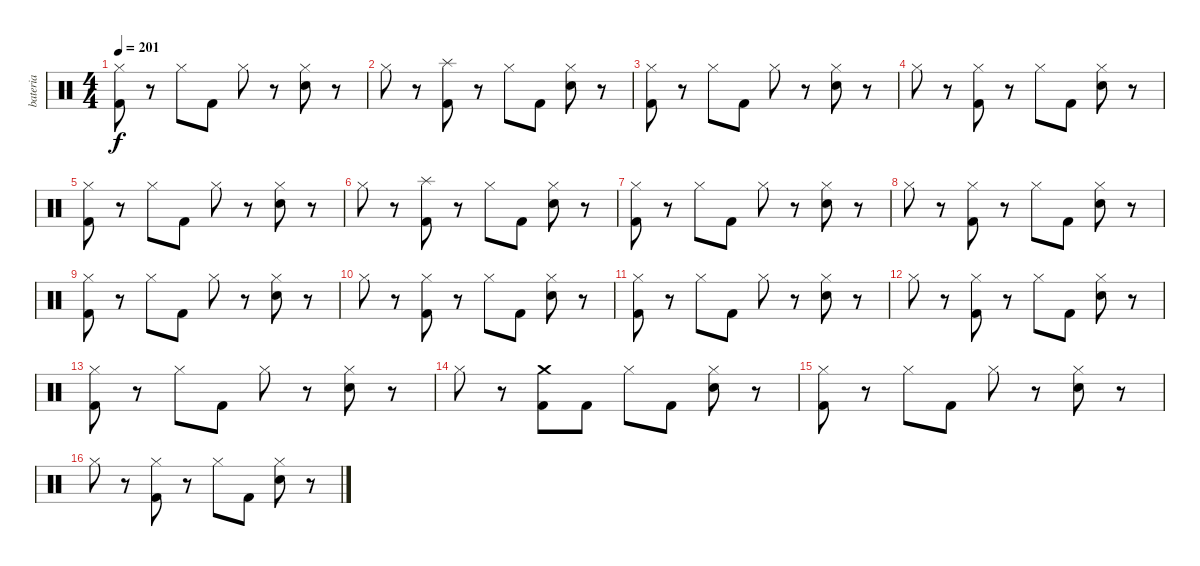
\track ("bateria" "bateria") {solo instrument percussion}
\staff {score}
\articulation defaults
\ts (4 4)
\tempo 201
\clef neutral
\ks c
("Hi-Hat (closed)" "Kick (hit) 2").8{dy f} r.8 "Hi-Hat (closed)".8 "Kick (hit) 2".8 "Hi-Hat (closed)".8 r.8 ("Hi-Hat (closed)" "Electric Snare (hit)").8 r.8 |
"Hi-Hat (closed)".8 r.8 ("Splash (hit)" "Kick (hit) 2").8 r.8 "Hi-Hat (closed)".8 "Kick (hit) 2".8 ("Hi-Hat (closed)" "Electric Snare (hit)").8 r.8 |
("Hi-Hat (closed)" "Kick (hit) 2").8 r.8 "Hi-Hat (closed)".8 "Kick (hit) 2".8 "Hi-Hat (closed)".8 r.8 ("Hi-Hat (closed)" "Electric Snare (hit)").8 r.8 |
"Hi-Hat (closed)".8 r.8 ("Hi-Hat (closed)" "Kick (hit) 2").8 r.8 "Hi-Hat (closed)".8 "Kick (hit) 2".8 ("Hi-Hat (closed)" "Electric Snare (hit)").8 r.8 |
("Hi-Hat (closed)" "Kick (hit) 2").8 r.8 "Hi-Hat (closed)".8 "Kick (hit) 2".8 "Hi-Hat (closed)".8 r.8 ("Hi-Hat (closed)" "Electric Snare (hit)").8 r.8 |
"Hi-Hat (closed)".8 r.8 ("Splash (hit)" "Kick (hit) 2").8 r.8 "Hi-Hat (closed)".8 "Kick (hit) 2".8 ("Hi-Hat (closed)" "Electric Snare (hit)").8 r.8 |
("Hi-Hat (closed)" "Kick (hit) 2").8 r.8 "Hi-Hat (closed)".8 "Kick (hit) 2".8 "Hi-Hat (closed)".8 r.8 ("Hi-Hat (closed)" "Electric Snare (hit)").8 r.8 |
"Hi-Hat (closed)".8 r.8 ("Hi-Hat (closed)" "Kick (hit) 2").8 r.8 "Hi-Hat (closed)".8 "Kick (hit) 2".8 ("Hi-Hat (closed)" "Electric Snare (hit)").8 r.8 |
("Hi-Hat (closed)" "Kick (hit) 2").8 r.8 "Hi-Hat (closed)".8 "Kick (hit) 2".8 "Hi-Hat (closed)".8 r.8 ("Hi-Hat (closed)" "Electric Snare (hit)").8 r.8 |
"Hi-Hat (closed)".8 r.8 ("Hi-Hat (closed)" "Kick (hit) 2").8 r.8 "Hi-Hat (closed)".8 "Kick (hit) 2".8 ("Hi-Hat (closed)" "Electric Snare (hit)").8 r.8 |
("Hi-Hat (closed)" "Kick (hit) 2").8 r.8 "Hi-Hat (closed)".8 "Kick (hit) 2".8 "Hi-Hat (closed)".8 r.8 ("Hi-Hat (closed)" "Electric Snare (hit)").8 r.8 |
"Hi-Hat (closed)".8 r.8 ("Hi-Hat (closed)" "Kick (hit) 2").8 r.8 "Hi-Hat (closed)".8 "Kick (hit) 2".8 ("Hi-Hat (closed)" "Electric Snare (hit)").8 r.8 |
("Hi-Hat (closed)" "Kick (hit) 2").8 r.8 "Hi-Hat (closed)".8 "Kick (hit) 2".8 "Hi-Hat (closed)".8 r.8 ("Hi-Hat (closed)" "Electric Snare (hit)").8 r.8 |
"Hi-Hat (closed)".8 r.8 ("Crash medium (hit)" "Kick (hit) 2").8 "Kick (hit) 2".8 "Hi-Hat (closed)".8 "Kick (hit) 2".8 ("Hi-Hat (closed)" "Electric Snare (hit)").8 r.8 |
("Hi-Hat (closed)" "Kick (hit) 2").8 r.8 "Hi-Hat (closed)".8 "Kick (hit) 2".8 "Hi-Hat (closed)".8 r.8 ("Hi-Hat (closed)" "Electric Snare (hit)").8 r.8 |
"Hi-Hat (closed)".8 r.8 ("Hi-Hat (closed)" "Kick (hit) 2").8 r.8 "Hi-Hat (closed)".8 "Kick (hit) 2".8 ("Hi-Hat (closed)" "Electric Snare (hit)").8 r.8
